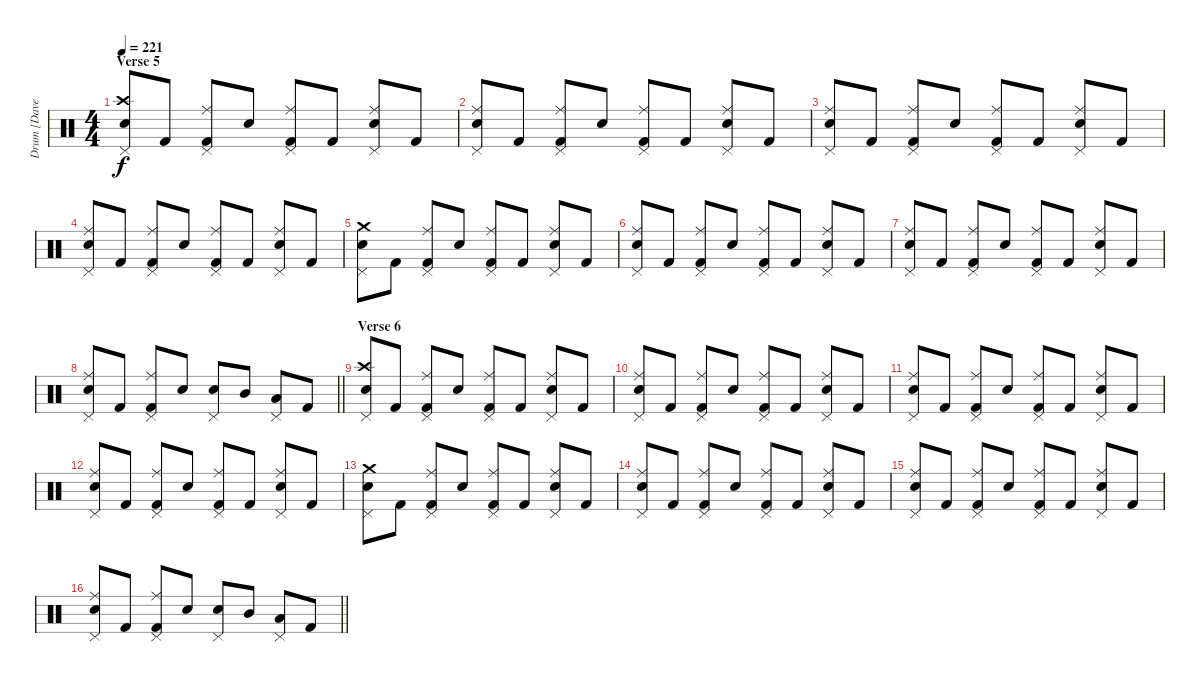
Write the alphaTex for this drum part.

\track ("Drum [Dave Grohl]" "Drum [Dave") {instrument percussion bank 255}
\staff {score}
\articulation defaults
\ts (4 4)
\section ("" "Verse 5")
\tempo 221
\clef neutral
\ks c
("Pedal Hi-Hat (hit)" "Crash high (hit)" "Snare (hit) 2").8{dy f} "Kick (hit) 2".8 ("Pedal Hi-Hat (hit)" "Ride (middle)" "Kick (hit) 2").8 "Snare (hit) 2".8 ("Pedal Hi-Hat (hit)" "Ride (middle)" "Kick (hit) 2").8 "Kick (hit) 2".8 ("Pedal Hi-Hat (hit)" "Ride (middle)" "Snare (hit) 2").8 "Kick (hit) 2".8 |
("Pedal Hi-Hat (hit)" "Ride (middle)" "Snare (hit) 2").8 "Kick (hit) 2".8 ("Pedal Hi-Hat (hit)" "Ride (middle)" "Kick (hit) 2").8 "Snare (hit) 2".8 ("Pedal Hi-Hat (hit)" "Ride (middle)" "Kick (hit) 2").8 "Kick (hit) 2".8 ("Pedal Hi-Hat (hit)" "Ride (middle)" "Snare (hit) 2").8 "Kick (hit) 2".8 |
("Pedal Hi-Hat (hit)" "Ride (middle)" "Snare (hit) 2").8 "Kick (hit) 2".8 ("Pedal Hi-Hat (hit)" "Ride (middle)" "Kick (hit) 2").8 "Snare (hit) 2".8 ("Pedal Hi-Hat (hit)" "Ride (middle)" "Kick (hit) 2").8 "Kick (hit) 2".8 ("Pedal Hi-Hat (hit)" "Ride (middle)" "Snare (hit) 2").8 "Kick (hit) 2".8 |
("Pedal Hi-Hat (hit)" "Ride (middle)" "Snare (hit) 2").8 "Kick (hit) 2".8 ("Pedal Hi-Hat (hit)" "Ride (middle)" "Kick (hit) 2").8 "Snare (hit) 2".8 ("Pedal Hi-Hat (hit)" "Ride (middle)" "Kick (hit) 2").8 "Kick (hit) 2".8 ("Pedal Hi-Hat (hit)" "Ride (middle)" "Snare (hit) 2").8 "Kick (hit) 2".8 |
("Pedal Hi-Hat (hit)" "Crash medium (hit)" "Snare (hit) 2").8 "Kick (hit) 2".8 ("Pedal Hi-Hat (hit)" "Ride (middle)" "Kick (hit) 2").8 "Snare (hit) 2".8 ("Pedal Hi-Hat (hit)" "Ride (middle)" "Kick (hit) 2").8 "Kick (hit) 2".8 ("Pedal Hi-Hat (hit)" "Ride (middle)" "Snare (hit) 2").8 "Kick (hit) 2".8 |
("Pedal Hi-Hat (hit)" "Ride (middle)" "Snare (hit) 2").8 "Kick (hit) 2".8 ("Pedal Hi-Hat (hit)" "Ride (middle)" "Kick (hit) 2").8 "Snare (hit) 2".8 ("Pedal Hi-Hat (hit)" "Ride (middle)" "Kick (hit) 2").8 "Kick (hit) 2".8 ("Pedal Hi-Hat (hit)" "Ride (middle)" "Snare (hit) 2").8 "Kick (hit) 2".8 |
("Pedal Hi-Hat (hit)" "Ride (middle)" "Snare (hit) 2").8 "Kick (hit) 2".8 ("Pedal Hi-Hat (hit)" "Ride (middle)" "Kick (hit) 2").8 "Snare (hit) 2".8 ("Pedal Hi-Hat (hit)" "Ride (middle)" "Kick (hit) 2").8 "Kick (hit) 2".8 ("Pedal Hi-Hat (hit)" "Ride (middle)" "Snare (hit) 2").8 "Kick (hit) 2".8 |
\barLineRight lightlight
("Pedal Hi-Hat (hit)" "Ride (middle)" "Snare (hit) 2").8 "Kick (hit) 2".8 ("Pedal Hi-Hat (hit)" "Ride (middle)" "Kick (hit) 2").8 "Snare (hit) 2".8 ("Pedal Hi-Hat (hit)" "Snare (hit) 2").8 "Mid Tom (hit)".8 ("Pedal Hi-Hat (hit)" "Low Tom (hit)").8 "Kick (hit) 2".8 |
\section ("" "Verse 6")
("Pedal Hi-Hat (hit)" "Crash high (hit)" "Snare (hit) 2").8 "Kick (hit) 2".8 ("Pedal Hi-Hat (hit)" "Ride (middle)" "Kick (hit) 2").8 "Snare (hit) 2".8 ("Pedal Hi-Hat (hit)" "Ride (middle)" "Kick (hit) 2").8 "Kick (hit) 2".8 ("Pedal Hi-Hat (hit)" "Ride (middle)" "Snare (hit) 2").8 "Kick (hit) 2".8 |
("Pedal Hi-Hat (hit)" "Ride (middle)" "Snare (hit) 2").8 "Kick (hit) 2".8 ("Pedal Hi-Hat (hit)" "Ride (middle)" "Kick (hit) 2").8 "Snare (hit) 2".8 ("Pedal Hi-Hat (hit)" "Ride (middle)" "Kick (hit) 2").8 "Kick (hit) 2".8 ("Pedal Hi-Hat (hit)" "Ride (middle)" "Snare (hit) 2").8 "Kick (hit) 2".8 |
("Pedal Hi-Hat (hit)" "Ride (middle)" "Snare (hit) 2").8 "Kick (hit) 2".8 ("Pedal Hi-Hat (hit)" "Ride (middle)" "Kick (hit) 2").8 "Snare (hit) 2".8 ("Pedal Hi-Hat (hit)" "Ride (middle)" "Kick (hit) 2").8 "Kick (hit) 2".8 ("Pedal Hi-Hat (hit)" "Ride (middle)" "Snare (hit) 2").8 "Kick (hit) 2".8 |
("Pedal Hi-Hat (hit)" "Ride (middle)" "Snare (hit) 2").8 "Kick (hit) 2".8 ("Pedal Hi-Hat (hit)" "Ride (middle)" "Kick (hit) 2").8 "Snare (hit) 2".8 ("Pedal Hi-Hat (hit)" "Ride (middle)" "Kick (hit) 2").8 "Kick (hit) 2".8 ("Pedal Hi-Hat (hit)" "Ride (middle)" "Snare (hit) 2").8 "Kick (hit) 2".8 |
("Pedal Hi-Hat (hit)" "Crash medium (hit)" "Snare (hit) 2").8 "Kick (hit) 2".8 ("Pedal Hi-Hat (hit)" "Ride (middle)" "Kick (hit) 2").8 "Snare (hit) 2".8 ("Pedal Hi-Hat (hit)" "Ride (middle)" "Kick (hit) 2").8 "Kick (hit) 2".8 ("Pedal Hi-Hat (hit)" "Ride (middle)" "Snare (hit) 2").8 "Kick (hit) 2".8 |
("Pedal Hi-Hat (hit)" "Ride (middle)" "Snare (hit) 2").8 "Kick (hit) 2".8 ("Pedal Hi-Hat (hit)" "Ride (middle)" "Kick (hit) 2").8 "Snare (hit) 2".8 ("Pedal Hi-Hat (hit)" "Ride (middle)" "Kick (hit) 2").8 "Kick (hit) 2".8 ("Pedal Hi-Hat (hit)" "Ride (middle)" "Snare (hit) 2").8 "Kick (hit) 2".8 |
("Pedal Hi-Hat (hit)" "Ride (middle)" "Snare (hit) 2").8 "Kick (hit) 2".8 ("Pedal Hi-Hat (hit)" "Ride (middle)" "Kick (hit) 2").8 "Snare (hit) 2".8 ("Pedal Hi-Hat (hit)" "Ride (middle)" "Kick (hit) 2").8 "Kick (hit) 2".8 ("Pedal Hi-Hat (hit)" "Ride (middle)" "Snare (hit) 2").8 "Kick (hit) 2".8 |
\barLineRight lightlight
("Pedal Hi-Hat (hit)" "Ride (middle)" "Snare (hit) 2").8 "Kick (hit) 2".8 ("Pedal Hi-Hat (hit)" "Ride (middle)" "Kick (hit) 2").8 "Snare (hit) 2".8 ("Pedal Hi-Hat (hit)" "Snare (hit) 2").8 "Mid Tom (hit)".8 ("Pedal Hi-Hat (hit)" "Low Tom (hit)").8 "Kick (hit) 2".8
